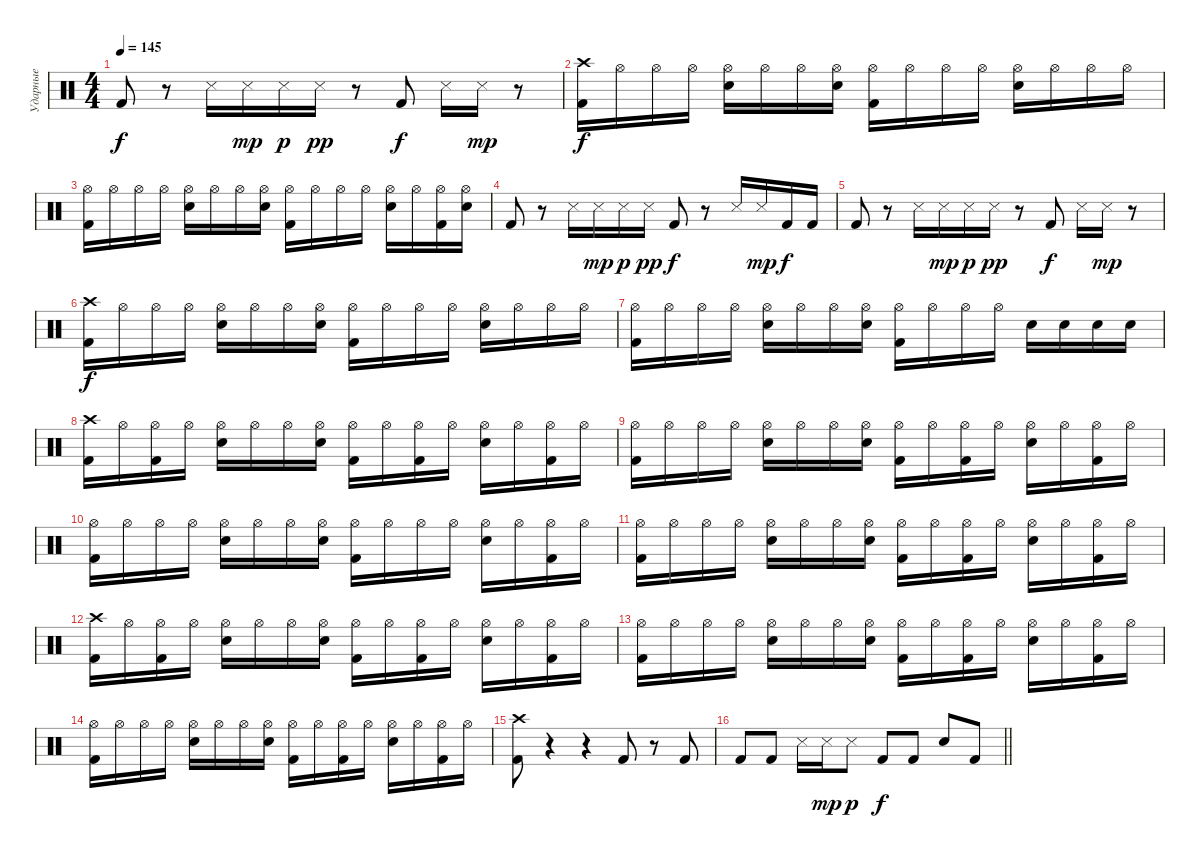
\track ("Ударные" "Ударные") {instrument percussion}
\staff {score}
\articulation defaults
\ts (4 4)
\tempo 145
\clef neutral
\ks c "Kick (hit) 2".8{dy f}
r.8 "Snare (side stick) 3".16 "Snare (side stick) 3".16{dy mp} "Snare (side stick) 3".16{dy p} "Snare (side stick) 3".16{dy pp} r.8 "Kick (hit) 2".8{dy f} "Snare (side stick) 3".16 "Snare (side stick) 3".16{dy mp} r.8 |
("Crash high (hit)" "Kick (hit) 2").16{dy f} "Hi-Hat (open)".16 "Hi-Hat (open)".16 "Hi-Hat (open)".16 ("Hi-Hat (open)" "Electric Snare (hit)").16 "Hi-Hat (open)".16 "Hi-Hat (open)".16 ("Hi-Hat (open)" "Electric Snare (hit)").16 ("Hi-Hat (open)" "Kick (hit) 2").16 "Hi-Hat (open)".16 "Hi-Hat (open)".16 "Hi-Hat (open)".16 ("Hi-Hat (open)" "Electric Snare (hit)").16 "Hi-Hat (open)".16 "Hi-Hat (open)".16 "Hi-Hat (open)".16 |
("Hi-Hat (open)" "Kick (hit) 2").16 "Hi-Hat (open)".16 "Hi-Hat (open)".16 "Hi-Hat (open)".16 ("Hi-Hat (open)" "Electric Snare (hit)").16 "Hi-Hat (open)".16 "Hi-Hat (open)".16 ("Hi-Hat (open)" "Electric Snare (hit)").16 ("Hi-Hat (open)" "Kick (hit) 2").16 "Hi-Hat (open)".16 "Hi-Hat (open)".16 "Hi-Hat (open)".16 ("Hi-Hat (open)" "Electric Snare (hit)").16 "Hi-Hat (open)".16 ("Hi-Hat (open)" "Kick (hit) 2").16 ("Hi-Hat (open)" "Electric Snare (hit)").16 |
"Kick (hit) 2".8 r.8 "Snare (side stick) 3".16 "Snare (side stick) 3".16{dy mp} "Snare (side stick) 3".16{dy p} "Snare (side stick) 3".16{dy pp} "Kick (hit) 2".8{dy f} r.8 "Snare (side stick) 3".16 "Snare (side stick) 3".16{dy mp} "Kick (hit) 2".16{dy f} "Kick (hit) 2".16 |
"Kick (hit) 2".8 r.8 "Snare (side stick) 3".16 "Snare (side stick) 3".16{dy mp} "Snare (side stick) 3".16{dy p} "Snare (side stick) 3".16{dy pp} r.8 "Kick (hit) 2".8{dy f} "Snare (side stick) 3".16 "Snare (side stick) 3".16{dy mp} r.8 |
("Crash high (hit)" "Kick (hit) 2").16{dy f} "Hi-Hat (open)".16 "Hi-Hat (open)".16 "Hi-Hat (open)".16 ("Hi-Hat (open)" "Electric Snare (hit)").16 "Hi-Hat (open)".16 "Hi-Hat (open)".16 ("Hi-Hat (open)" "Electric Snare (hit)").16 ("Hi-Hat (open)" "Kick (hit) 2").16 "Hi-Hat (open)".16 "Hi-Hat (open)".16 "Hi-Hat (open)".16 ("Hi-Hat (open)" "Electric Snare (hit)").16 "Hi-Hat (open)".16 "Hi-Hat (open)".16 "Hi-Hat (open)".16 |
("Hi-Hat (open)" "Kick (hit) 2").16 "Hi-Hat (open)".16 "Hi-Hat (open)".16 "Hi-Hat (open)".16 ("Hi-Hat (open)" "Electric Snare (hit)").16 "Hi-Hat (open)".16 "Hi-Hat (open)".16 ("Hi-Hat (open)" "Electric Snare (hit)").16 ("Hi-Hat (open)" "Kick (hit) 2").16 "Hi-Hat (open)".16 "Hi-Hat (open)".16 "Hi-Hat (open)".16 "Electric Snare (hit)".16 "Electric Snare (hit)".16 "Electric Snare (hit)".16 "Electric Snare (hit)".16 |
("Crash high (hit)" "Kick (hit) 2").16 "Hi-Hat (open)".16 ("Hi-Hat (open)" "Kick (hit) 2").16 "Hi-Hat (open)".16 ("Hi-Hat (open)" "Electric Snare (hit)").16 "Hi-Hat (open)".16 "Hi-Hat (open)".16 ("Hi-Hat (open)" "Electric Snare (hit)").16 ("Hi-Hat (open)" "Kick (hit) 2").16 "Hi-Hat (open)".16 ("Hi-Hat (open)" "Kick (hit) 2").16 "Hi-Hat (open)".16 ("Hi-Hat (open)" "Electric Snare (hit)").16 "Hi-Hat (open)".16 ("Hi-Hat (open)" "Kick (hit) 2").16 "Hi-Hat (open)".16 |
("Hi-Hat (open)" "Kick (hit) 2").16 "Hi-Hat (open)".16 "Hi-Hat (open)".16 "Hi-Hat (open)".16 ("Hi-Hat (open)" "Electric Snare (hit)").16 "Hi-Hat (open)".16 "Hi-Hat (open)".16 ("Hi-Hat (open)" "Electric Snare (hit)").16 ("Hi-Hat (open)" "Kick (hit) 2").16 "Hi-Hat (open)".16 ("Hi-Hat (open)" "Kick (hit) 2").16 "Hi-Hat (open)".16 ("Hi-Hat (open)" "Electric Snare (hit)").16 "Hi-Hat (open)".16 ("Hi-Hat (open)" "Kick (hit) 2").16 "Hi-Hat (open)".16 |
("Hi-Hat (open)" "Kick (hit) 2").16 "Hi-Hat (open)".16 "Hi-Hat (open)".16 "Hi-Hat (open)".16 ("Hi-Hat (open)" "Electric Snare (hit)").16 "Hi-Hat (open)".16 "Hi-Hat (open)".16 ("Hi-Hat (open)" "Electric Snare (hit)").16 ("Hi-Hat (open)" "Kick (hit) 2").16 "Hi-Hat (open)".16 "Hi-Hat (open)".16 "Hi-Hat (open)".16 ("Hi-Hat (open)" "Electric Snare (hit)").16 "Hi-Hat (open)".16 ("Hi-Hat (open)" "Kick (hit) 2").16 "Hi-Hat (open)".16 |
("Hi-Hat (open)" "Kick (hit) 2").16 "Hi-Hat (open)".16 "Hi-Hat (open)".16 "Hi-Hat (open)".16 ("Hi-Hat (open)" "Electric Snare (hit)").16 "Hi-Hat (open)".16 "Hi-Hat (open)".16 ("Hi-Hat (open)" "Electric Snare (hit)").16 ("Hi-Hat (open)" "Kick (hit) 2").16 "Hi-Hat (open)".16 ("Hi-Hat (open)" "Kick (hit) 2").16 "Hi-Hat (open)".16 ("Hi-Hat (open)" "Electric Snare (hit)").16 "Hi-Hat (open)".16 ("Hi-Hat (open)" "Kick (hit) 2").16 "Hi-Hat (open)".16 |
("Crash high (hit)" "Kick (hit) 2").16 "Hi-Hat (open)".16 ("Hi-Hat (open)" "Kick (hit) 2").16 "Hi-Hat (open)".16 ("Hi-Hat (open)" "Electric Snare (hit)").16 "Hi-Hat (open)".16 "Hi-Hat (open)".16 ("Hi-Hat (open)" "Electric Snare (hit)").16 ("Hi-Hat (open)" "Kick (hit) 2").16 "Hi-Hat (open)".16 ("Hi-Hat (open)" "Kick (hit) 2").16 "Hi-Hat (open)".16 ("Hi-Hat (open)" "Electric Snare (hit)").16 "Hi-Hat (open)".16 ("Hi-Hat (open)" "Kick (hit) 2").16 "Hi-Hat (open)".16 |
("Hi-Hat (open)" "Kick (hit) 2").16 "Hi-Hat (open)".16 "Hi-Hat (open)".16 "Hi-Hat (open)".16 ("Hi-Hat (open)" "Electric Snare (hit)").16 "Hi-Hat (open)".16 "Hi-Hat (open)".16 ("Hi-Hat (open)" "Electric Snare (hit)").16 ("Hi-Hat (open)" "Kick (hit) 2").16 "Hi-Hat (open)".16 ("Hi-Hat (open)" "Kick (hit) 2").16 "Hi-Hat (open)".16 ("Hi-Hat (open)" "Electric Snare (hit)").16 "Hi-Hat (open)".16 ("Hi-Hat (open)" "Kick (hit) 2").16 "Hi-Hat (open)".16 |
("Hi-Hat (open)" "Kick (hit) 2").16 "Hi-Hat (open)".16 "Hi-Hat (open)".16 "Hi-Hat (open)".16 ("Hi-Hat (open)" "Electric Snare (hit)").16 "Hi-Hat (open)".16 "Hi-Hat (open)".16 ("Hi-Hat (open)" "Electric Snare (hit)").16 ("Hi-Hat (open)" "Kick (hit) 2").16 "Hi-Hat (open)".16 ("Hi-Hat (open)" "Kick (hit) 2").16 "Hi-Hat (open)".16 ("Hi-Hat (open)" "Electric Snare (hit)").16 "Hi-Hat (open)".16 ("Hi-Hat (open)" "Kick (hit) 2").16 "Hi-Hat (open)".16 |
("Crash high (hit)" "Kick (hit) 2").8 r.4 r.4 "Kick (hit) 2".8 r.8 "Kick (hit) 2".8 |
\barLineRight lightlight "Kick (hit) 2".8 "Kick (hit) 2".8 "Snare (side stick) 3".16 "Snare (side stick) 3".16{dy mp} "Snare (side stick) 3".8{dy p} "Kick (hit) 2".8{dy f} "Kick (hit) 2".8 "Electric Snare (hit)".8 "Kick (hit) 2".8
